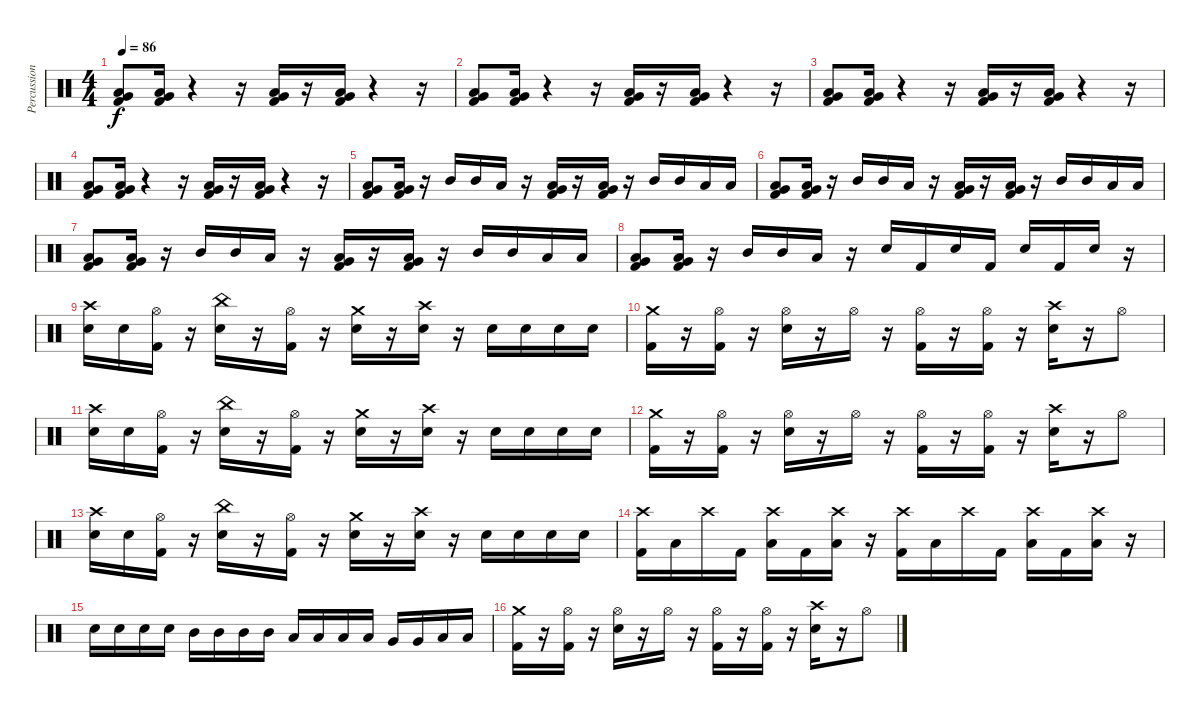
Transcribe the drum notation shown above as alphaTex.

\track ("Percussions" "Percussion") {instrument percussion}
\staff {score}
\articulation defaults
\ts (4 4)
\tempo 86
\clef neutral
\ks c
("Very Low Tom (hit)" "Low Tom (hit)" "Kick (hit) 2").8{dy f} ("Low Tom (hit)" "Very Low Tom (hit)" "Kick (hit) 2").16 r.4 r.16 ("Low Tom (hit)" "Very Low Tom (hit)" "Kick (hit) 2").16 r.16 ("Low Tom (hit)" "Very Low Tom (hit)" "Kick (hit) 2").16 r.4 r.16 |
("Very Low Tom (hit)" "Low Tom (hit)" "Kick (hit) 2").8 ("Low Tom (hit)" "Very Low Tom (hit)" "Kick (hit) 2").16 r.4 r.16 ("Low Tom (hit)" "Very Low Tom (hit)" "Kick (hit) 2").16 r.16 ("Low Tom (hit)" "Very Low Tom (hit)" "Kick (hit) 2").16 r.4 r.16 |
("Very Low Tom (hit)" "Low Tom (hit)" "Kick (hit) 2").8 ("Low Tom (hit)" "Very Low Tom (hit)" "Kick (hit) 2").16 r.4 r.16 ("Low Tom (hit)" "Very Low Tom (hit)" "Kick (hit) 2").16 r.16 ("Low Tom (hit)" "Very Low Tom (hit)" "Kick (hit) 2").16 r.4 r.16 |
("Very Low Tom (hit)" "Low Tom (hit)" "Kick (hit) 2").8 ("Low Tom (hit)" "Very Low Tom (hit)" "Kick (hit) 2").16 r.4 r.16 ("Low Tom (hit)" "Very Low Tom (hit)" "Kick (hit) 2").16 r.16 ("Low Tom (hit)" "Very Low Tom (hit)" "Kick (hit) 2").16 r.4 r.16 |
("Very Low Tom (hit)" "Low Tom (hit)" "Kick (hit) 2").8 ("Low Tom (hit)" "Very Low Tom (hit)" "Kick (hit) 2").16 r.16 "Mid Tom (hit)".16 "Mid Tom (hit)".16 "Low Tom (hit)".16 r.16 ("Low Tom (hit)" "Very Low Tom (hit)" "Kick (hit) 2").16 r.16 ("Low Tom (hit)" "Very Low Tom (hit)" "Kick (hit) 2").16 r.16 "Mid Tom (hit)".16 "Mid Tom (hit)".16 "Low Tom (hit)".16 "Low Tom (hit)".16 |
("Low Tom (hit)" "Kick (hit) 2" "Very Low Tom (hit)").8 ("Low Tom (hit)" "Very Low Tom (hit)" "Kick (hit) 2").16 r.16 "Mid Tom (hit)".16 "Mid Tom (hit)".16 "Low Tom (hit)".16 r.16 ("Low Tom (hit)" "Very Low Tom (hit)" "Kick (hit) 2").16 r.16 ("Low Tom (hit)" "Very Low Tom (hit)" "Kick (hit) 2").16 r.16 "Mid Tom (hit)".16 "Mid Tom (hit)".16 "Low Tom (hit)".16 "Low Tom (hit)".16 |
("Very Low Tom (hit)" "Low Tom (hit)" "Kick (hit) 2").8 ("Low Tom (hit)" "Very Low Tom (hit)" "Kick (hit) 2").16 r.16 "Mid Tom (hit)".16 "Mid Tom (hit)".16 "Low Tom (hit)".16 r.16 ("Low Tom (hit)" "Very Low Tom (hit)" "Kick (hit) 2").16 r.16 ("Low Tom (hit)" "Very Low Tom (hit)" "Kick (hit) 2").16 r.16 "Mid Tom (hit)".16 "Mid Tom (hit)".16 "Low Tom (hit)".16 "Low Tom (hit)".16 |
("Very Low Tom (hit)" "Low Tom (hit)" "Kick (hit) 2").8 ("Low Tom (hit)" "Very Low Tom (hit)" "Kick (hit) 2").16 r.16 "Mid Tom (hit)".16 "Mid Tom (hit)".16 "Low Tom (hit)".16 r.16 "Snare (hit) 2".16 "Kick (hit) 2".16 "Snare (hit) 2".16 "Kick (hit) 2".16 "Snare (hit) 2".16 "Kick (hit) 2".16 "Snare (hit) 2".16 r.16 |
("Crash high (hit)" "Snare (hit) 2").16 "Snare (hit) 2".16 ("Hi-Hat (open)" "Kick (hit) 2").16 r.16 ("Snare (hit) 2" "China (hit)").16 r.16 ("Kick (hit) 2" "Hi-Hat (open)").16 r.16 ("Snare (hit) 2" "Crash medium (hit)").16 r.16 ("Crash high (hit)" "Snare (hit) 2").16 r.16 "Snare (hit) 2".16 "Snare (hit) 2".16 "Snare (hit) 2".16 "Snare (hit) 2".16 |
("Kick (hit) 2" "Crash medium (hit)").16 r.16 ("Kick (hit) 2" "Hi-Hat (open)").16 r.16 ("Snare (hit) 2" "Hi-Hat (open)").16 r.16 "Hi-Hat (open)".16 r.16 ("Hi-Hat (open)" "Kick (hit) 2").16 r.16 ("Kick (hit) 2" "Hi-Hat (open)").16 r.16 ("Snare (hit) 2" "Crash high (hit)").16 r.16 "Hi-Hat (open)".8 |
("Snare (hit) 2" "Crash high (hit)").16 "Snare (hit) 2".16 ("Hi-Hat (open)" "Kick (hit) 2").16 r.16 ("China (hit)" "Snare (hit) 2").16 r.16 ("Hi-Hat (open)" "Kick (hit) 2").16 r.16 ("Crash medium (hit)" "Snare (hit) 2").16 r.16 ("Crash high (hit)" "Snare (hit) 2").16 r.16 "Snare (hit) 2".16 "Snare (hit) 2".16 "Snare (hit) 2".16 "Snare (hit) 2".16 |
("Crash medium (hit)" "Kick (hit) 2").16 r.16 ("Hi-Hat (open)" "Kick (hit) 2").16 r.16 ("Hi-Hat (open)" "Snare (hit) 2").16 r.16 "Hi-Hat (open)".16 r.16 ("Kick (hit) 2" "Hi-Hat (open)").16 r.16 ("Hi-Hat (open)" "Kick (hit) 2").16 r.16 ("Crash high (hit)" "Snare (hit) 2").16 r.16 "Hi-Hat (open)".8 |
("Snare (hit) 2" "Crash high (hit)").16 "Snare (hit) 2".16 ("Hi-Hat (open)" "Kick (hit) 2").16 r.16 ("China (hit)" "Snare (hit) 2").16 r.16 ("Hi-Hat (open)" "Kick (hit) 2").16 r.16 ("Crash medium (hit)" "Snare (hit) 2").16 r.16 ("Crash high (hit)" "Snare (hit) 2").16 r.16 "Snare (hit) 2".16 "Snare (hit) 2".16 "Snare (hit) 2".16 "Snare (hit) 2".16 |
("Kick (hit) 2" "Crash high (hit)").16 "Low Tom (hit)".16 "Crash high (hit)".16 "Kick (hit) 2".16 ("Low Tom (hit)" "Crash high (hit)").16 "Kick (hit) 2".16 ("Low Floor Tom (hit)" "Crash high (hit)").16 r.16 ("Kick (hit) 2" "Crash high (hit)").16 "Low Tom (hit)".16 "Crash high (hit)".16 "Kick (hit) 2".16 ("Low Tom (hit)" "Crash high (hit)").16 "Kick (hit) 2".16 ("Low Floor Tom (hit)" "Crash high (hit)").16 r.16 |
"Snare (hit) 2".16 "Snare (hit) 2".16 "Snare (hit) 2".16 "Snare (hit) 2".16 "Mid Tom (hit)".16 "Mid Tom (hit)".16 "Mid Tom (hit)".16 "Mid Tom (hit)".16 "Low Tom (hit)".16 "Low Tom (hit)".16 "Low Tom (hit)".16 "Low Tom (hit)".16 "Very Low Tom (hit)".16 "Very Low Tom (hit)".16 "Low Floor Tom (hit)".16 "Low Floor Tom (hit)".16 |
("Kick (hit) 2" "Crash medium (hit)").16 r.16 ("Hi-Hat (open)" "Kick (hit) 2").16 r.16 ("Snare (hit) 2" "Hi-Hat (open)").16 r.16 "Hi-Hat (open)".16 r.16 ("Hi-Hat (open)" "Kick (hit) 2").16 r.16 ("Hi-Hat (open)" "Kick (hit) 2").16 r.16 ("Snare (hit) 2" "Crash high (hit)").16 r.16 "Hi-Hat (open)".8
